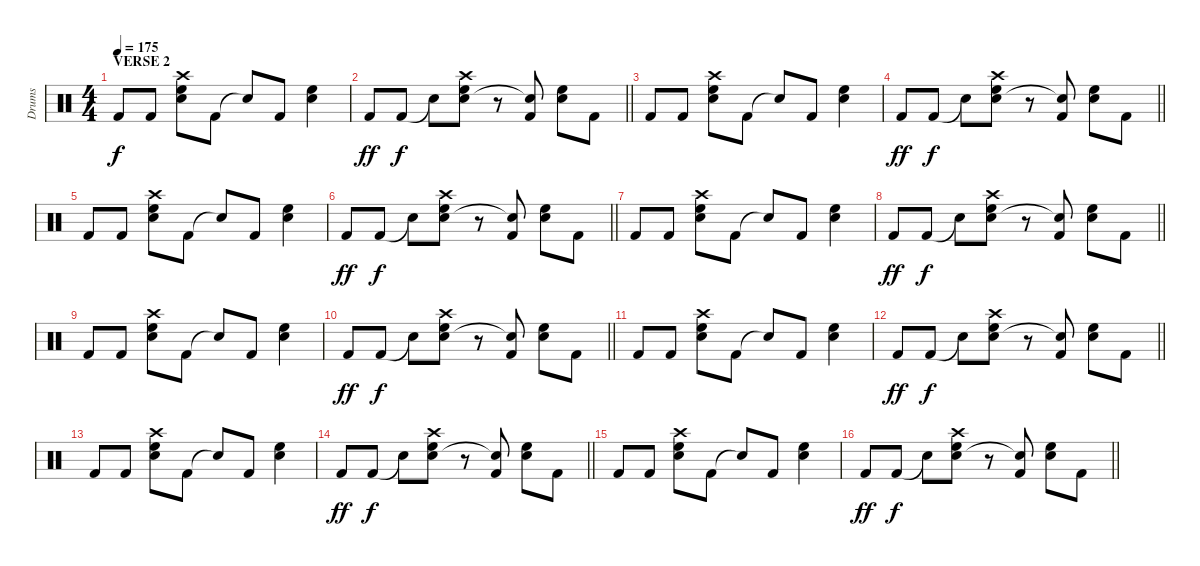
\track ("Drums" "Drums") {instrument percussion}
\staff {score}
\articulation defaults
\ts (4 4)
\section ("" "VERSE 2")
\tempo 175
\clef neutral
\ks c "Kick (hit) 2".8{dy f} "Kick (hit) 2".8
("High Floor Tom (hit)" "Electric Snare (hit)" "Crash high (hit)").8 "Kick (hit) 2".8 "Snare (hit)"{t}.8 "Kick (hit) 2".8 ("High Floor Tom (hit)" "Electric Snare (hit)").4 |
\barLineRight lightlight "Kick (hit) 2".8{dy ff} "Kick (hit) 2".8{dy f} "Snare (hit)"{t}.8
("High Floor Tom (hit)" "Electric Snare (hit)" "Crash high (hit)").8 r.8 ("Kick (hit) 2" "Snare (hit)"{t}).8 ("High Floor Tom (hit)" "Electric Snare (hit)").8 "Kick (hit) 2".8 |
"Kick (hit) 2".8 "Kick (hit) 2".8 ("High Floor Tom (hit)" "Electric Snare (hit)" "Crash high (hit)").8 "Kick (hit) 2".8 "Snare (hit)"{t}.8 "Kick (hit) 2".8 ("High Floor Tom (hit)" "Electric Snare (hit)").4 |
\barLineRight lightlight "Kick (hit) 2".8{dy ff} "Kick (hit) 2".8{dy f} "Snare (hit)"{t}.8
("High Floor Tom (hit)" "Electric Snare (hit)" "Crash high (hit)").8 r.8 ("Kick (hit) 2" "Snare (hit)"{t}).8 ("High Floor Tom (hit)" "Electric Snare (hit)").8 "Kick (hit) 2".8 |
"Kick (hit) 2".8 "Kick (hit) 2".8 ("High Floor Tom (hit)" "Electric Snare (hit)" "Crash high (hit)").8 "Kick (hit) 2".8 "Snare (hit)"{t}.8 "Kick (hit) 2".8 ("High Floor Tom (hit)" "Electric Snare (hit)").4 |
\barLineRight lightlight "Kick (hit) 2".8{dy ff} "Kick (hit) 2".8{dy f} "Snare (hit)"{t}.8
("High Floor Tom (hit)" "Electric Snare (hit)" "Crash high (hit)").8 r.8 ("Kick (hit) 2" "Snare (hit)"{t}).8 ("High Floor Tom (hit)" "Electric Snare (hit)").8 "Kick (hit) 2".8 |
"Kick (hit) 2".8 "Kick (hit) 2".8 ("High Floor Tom (hit)" "Electric Snare (hit)" "Crash high (hit)").8 "Kick (hit) 2".8 "Snare (hit)"{t}.8 "Kick (hit) 2".8 ("High Floor Tom (hit)" "Electric Snare (hit)").4 |
\barLineRight lightlight "Kick (hit) 2".8{dy ff} "Kick (hit) 2".8{dy f} "Snare (hit)"{t}.8
("High Floor Tom (hit)" "Electric Snare (hit)" "Crash high (hit)").8 r.8 ("Kick (hit) 2" "Snare (hit)"{t}).8 ("High Floor Tom (hit)" "Electric Snare (hit)").8 "Kick (hit) 2".8 |
"Kick (hit) 2".8 "Kick (hit) 2".8 ("High Floor Tom (hit)" "Electric Snare (hit)" "Crash high (hit)").8 "Kick (hit) 2".8 "Snare (hit)"{t}.8 "Kick (hit) 2".8 ("High Floor Tom (hit)" "Electric Snare (hit)").4 |
\barLineRight lightlight "Kick (hit) 2".8{dy ff} "Kick (hit) 2".8{dy f} "Snare (hit)"{t}.8
("High Floor Tom (hit)" "Electric Snare (hit)" "Crash high (hit)").8 r.8 ("Kick (hit) 2" "Snare (hit)"{t}).8 ("High Floor Tom (hit)" "Electric Snare (hit)").8 "Kick (hit) 2".8 |
"Kick (hit) 2".8 "Kick (hit) 2".8 ("High Floor Tom (hit)" "Electric Snare (hit)" "Crash high (hit)").8 "Kick (hit) 2".8 "Snare (hit)"{t}.8 "Kick (hit) 2".8 ("High Floor Tom (hit)" "Electric Snare (hit)").4 |
\barLineRight lightlight "Kick (hit) 2".8{dy ff} "Kick (hit) 2".8{dy f} "Snare (hit)"{t}.8
("High Floor Tom (hit)" "Electric Snare (hit)" "Crash high (hit)").8 r.8 ("Kick (hit) 2" "Snare (hit)"{t}).8 ("High Floor Tom (hit)" "Electric Snare (hit)").8 "Kick (hit) 2".8 |
"Kick (hit) 2".8 "Kick (hit) 2".8 ("High Floor Tom (hit)" "Electric Snare (hit)" "Crash high (hit)").8 "Kick (hit) 2".8 "Snare (hit)"{t}.8 "Kick (hit) 2".8 ("High Floor Tom (hit)" "Electric Snare (hit)").4 |
\barLineRight lightlight "Kick (hit) 2".8{dy ff} "Kick (hit) 2".8{dy f} "Snare (hit)"{t}.8
("High Floor Tom (hit)" "Electric Snare (hit)" "Crash high (hit)").8 r.8 ("Kick (hit) 2" "Snare (hit)"{t}).8 ("High Floor Tom (hit)" "Electric Snare (hit)").8 "Kick (hit) 2".8 |
"Kick (hit) 2".8 "Kick (hit) 2".8 ("High Floor Tom (hit)" "Electric Snare (hit)" "Crash high (hit)").8 "Kick (hit) 2".8 "Snare (hit)"{t}.8 "Kick (hit) 2".8 ("High Floor Tom (hit)" "Electric Snare (hit)").4 |
\barLineRight lightlight "Kick (hit) 2".8{dy ff} "Kick (hit) 2".8{dy f} "Snare (hit)"{t}.8
("High Floor Tom (hit)" "Electric Snare (hit)" "Crash high (hit)").8 r.8 ("Kick (hit) 2" "Snare (hit)"{t}).8 ("High Floor Tom (hit)" "Electric Snare (hit)").8 "Kick (hit) 2".8
